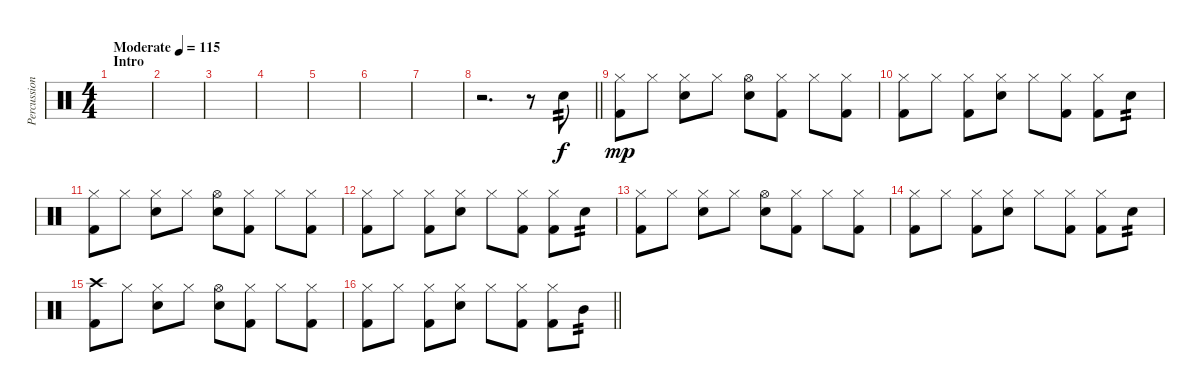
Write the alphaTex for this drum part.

\track ("Percussion" "Percussion") {instrument percussion}
\staff {score}
\articulation defaults
\ts (4 4)
\section ("" "Intro")
\tempo (115 "Moderate")
\clef neutral
\ks c
|
|
|
|
|
|
|
\barLineRight lightlight
r.2{d} r.8 "Electric Snare (hit)".8{tp 2} |
("Hi-Hat (closed)" "Kick (hit) 2").8{dy mp} "Hi-Hat (closed)".8 ("Hi-Hat (closed)" "Electric Snare (hit)").8 "Hi-Hat (closed)".8 ("Hi-Hat (open)" "Electric Snare (hit)").8 ("Hi-Hat (closed)" "Kick (hit) 2").8 "Hi-Hat (closed)".8 ("Hi-Hat (closed)" "Kick (hit) 2").8 |
("Hi-Hat (closed)" "Kick (hit) 2").8 "Hi-Hat (closed)".8 ("Hi-Hat (closed)" "Kick (hit) 2").8 ("Hi-Hat (closed)" "Electric Snare (hit)").8 "Hi-Hat (closed)".8 ("Hi-Hat (closed)" "Kick (hit) 2").8 ("Hi-Hat (closed)" "Kick (hit) 2").8 "Electric Snare (hit)".8{tp 2} |
("Hi-Hat (closed)" "Kick (hit) 2").8 "Hi-Hat (closed)".8 ("Hi-Hat (closed)" "Electric Snare (hit)").8 "Hi-Hat (closed)".8 ("Hi-Hat (open)" "Electric Snare (hit)").8 ("Hi-Hat (closed)" "Kick (hit) 2").8 "Hi-Hat (closed)".8 ("Hi-Hat (closed)" "Kick (hit) 2").8 |
("Hi-Hat (closed)" "Kick (hit) 2").8 "Hi-Hat (closed)".8 ("Hi-Hat (closed)" "Kick (hit) 2").8 ("Hi-Hat (closed)" "Electric Snare (hit)").8 "Hi-Hat (closed)".8 ("Hi-Hat (closed)" "Kick (hit) 2").8 ("Hi-Hat (closed)" "Kick (hit) 2").8 "Electric Snare (hit)".8{tp 2} |
("Hi-Hat (closed)" "Kick (hit) 2").8 "Hi-Hat (closed)".8 ("Hi-Hat (closed)" "Electric Snare (hit)").8 "Hi-Hat (closed)".8 ("Hi-Hat (open)" "Electric Snare (hit)").8 ("Hi-Hat (closed)" "Kick (hit) 2").8 "Hi-Hat (closed)".8 ("Hi-Hat (closed)" "Kick (hit) 2").8 |
("Hi-Hat (closed)" "Kick (hit) 2").8 "Hi-Hat (closed)".8 ("Hi-Hat (closed)" "Kick (hit) 2").8 ("Hi-Hat (closed)" "Electric Snare (hit)").8 "Hi-Hat (closed)".8 ("Hi-Hat (closed)" "Kick (hit) 2").8 ("Hi-Hat (closed)" "Kick (hit) 2").8 "Electric Snare (hit)".8{tp 2} |
("Crash high (hit)" "Kick (hit) 2").8 "Hi-Hat (closed)".8 ("Hi-Hat (closed)" "Electric Snare (hit)").8 "Hi-Hat (closed)".8 ("Hi-Hat (open)" "Electric Snare (hit)").8 ("Hi-Hat (closed)" "Kick (hit) 2").8 "Hi-Hat (closed)".8 ("Hi-Hat (closed)" "Kick (hit) 2").8 |
\barLineRight lightlight
("Hi-Hat (closed)" "Kick (hit) 2").8 "Hi-Hat (closed)".8 ("Hi-Hat (closed)" "Kick (hit) 2").8 ("Hi-Hat (closed)" "Electric Snare (hit)").8 "Hi-Hat (closed)".8 ("Hi-Hat (closed)" "Kick (hit) 2").8 ("Hi-Hat (closed)" "Kick (hit) 2").8 "Mid Tom (hit)".8{tp 2}
